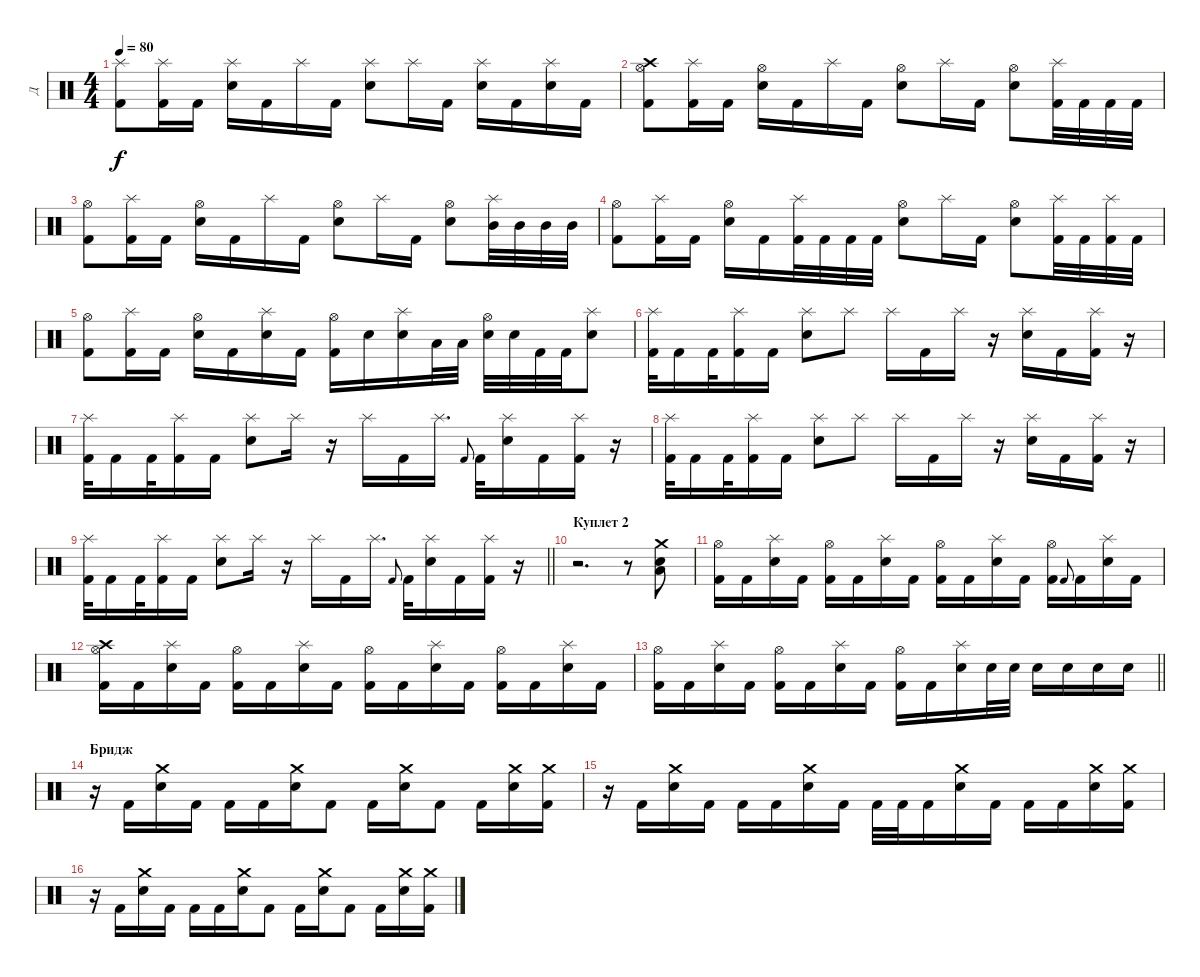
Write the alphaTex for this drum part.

\track ("Д" "Д") {instrument percussion}
\staff {score}
\articulation defaults
\ts (4 4)
\tempo 80
\clef neutral
\ks c
("Kick (hit) 2" "Splash (hit)").8{dy f} ("Kick (hit) 2" "Splash (hit)").16 "Kick (hit) 2".16 ("Electric Snare (hit)" "Splash (hit)").16 "Kick (hit) 2".16 "Splash (hit)".16 "Kick (hit) 2".16 ("Electric Snare (hit)" "Splash (hit)").8 "Splash (hit)".16 "Kick (hit) 2".16 ("Electric Snare (hit)" "Splash (hit)").16 "Kick (hit) 2".16 ("Electric Snare (hit)" "Splash (hit)").16 "Kick (hit) 2".16 |
("Crash high (hit)" "Kick (hit) 2" "Hi-Hat (open)").8 ("Kick (hit) 2" "Splash (hit)").16 "Kick (hit) 2".16 ("Electric Snare (hit)" "Hi-Hat (open)").16 "Kick (hit) 2".16 "Splash (hit)".16 "Kick (hit) 2".16 ("Electric Snare (hit)" "Hi-Hat (open)").8 "Splash (hit)".16 "Kick (hit) 2".16 ("Electric Snare (hit)" "Hi-Hat (open)").8 ("Kick (hit) 2" "Splash (hit)").32 "Kick (hit) 2".32 "Kick (hit) 2".32 "Kick (hit) 2".32 |
("Kick (hit) 2" "Hi-Hat (open)").8 ("Kick (hit) 2" "Splash (hit)").16 "Kick (hit) 2".16 ("Electric Snare (hit)" "Hi-Hat (open)").16 "Kick (hit) 2".16 "Splash (hit)".16 "Kick (hit) 2".16 ("Electric Snare (hit)" "Hi-Hat (open)").8 "Splash (hit)".16 "Kick (hit) 2".16 ("Electric Snare (hit)" "Hi-Hat (open)").8 ("Mid Tom (hit)" "Splash (hit)").32 "Mid Tom (hit)".32 "Mid Tom (hit)".32 "Mid Tom (hit)".32 |
("Kick (hit) 2" "Hi-Hat (open)").8 ("Kick (hit) 2" "Splash (hit)").16 "Kick (hit) 2".16 ("Electric Snare (hit)" "Hi-Hat (open)").16 "Kick (hit) 2".16 ("Kick (hit) 2" "Splash (hit)").32 "Kick (hit) 2".32 "Kick (hit) 2".32 "Kick (hit) 2".32 ("Electric Snare (hit)" "Hi-Hat (open)").8 "Splash (hit)".16 "Kick (hit) 2".16 ("Electric Snare (hit)" "Hi-Hat (open)").8 ("Kick (hit) 2" "Splash (hit)").32 "Kick (hit) 2".32 ("Kick (hit) 2" "Splash (hit)").32 "Kick (hit) 2".32 |
("Kick (hit) 2" "Hi-Hat (open)").8 ("Kick (hit) 2" "Splash (hit)").16 "Kick (hit) 2".16 ("Electric Snare (hit)" "Hi-Hat (open)").16 "Kick (hit) 2".16 ("Electric Snare (hit)" "Splash (hit)").16 "Kick (hit) 2".16 ("Kick (hit) 2" "Hi-Hat (open)").16 "Electric Snare (hit)".16 ("Electric Snare (hit)" "Splash (hit)").16 "Low Tom (hit)".32 "Low Tom (hit)".32 ("Electric Snare (hit)" "Hi-Hat (open)").32 "Electric Snare (hit)".32 "Kick (hit) 2".32 "Kick (hit) 2".32 ("Electric Snare (hit)" "Splash (hit)").8 |
("Kick (hit) 2" "Splash (hit)").32 "Kick (hit) 2".16 "Kick (hit) 2".32 ("Kick (hit) 2" "Splash (hit)").16 "Kick (hit) 2".16 ("Electric Snare (hit)" "Splash (hit)").8 "Splash (hit)".8 "Splash (hit)".16 "Kick (hit) 2".16 "Splash (hit)".16 r.16 ("Electric Snare (hit)" "Splash (hit)").16 "Kick (hit) 2".16 ("Kick (hit) 2" "Splash (hit)").16 r.16 |
("Kick (hit) 2" "Splash (hit)").32 "Kick (hit) 2".16 "Kick (hit) 2".32 ("Kick (hit) 2" "Splash (hit)").16 "Kick (hit) 2".16 ("Electric Snare (hit)" "Splash (hit)").8 "Splash (hit)".16 r.16 "Splash (hit)".16 "Kick (hit) 2".16 "Splash (hit)".16{d} "Kick (hit) 2".8{gr onbeat} "Kick (hit) 2".32 ("Electric Snare (hit)" "Splash (hit)").16 "Kick (hit) 2".16 ("Kick (hit) 2" "Splash (hit)").16 r.16 |
("Kick (hit) 2" "Splash (hit)").32 "Kick (hit) 2".16 "Kick (hit) 2".32 ("Kick (hit) 2" "Splash (hit)").16 "Kick (hit) 2".16 ("Electric Snare (hit)" "Splash (hit)").8 "Splash (hit)".8 "Splash (hit)".16 "Kick (hit) 2".16 "Splash (hit)".16 r.16 ("Electric Snare (hit)" "Splash (hit)").16 "Kick (hit) 2".16 ("Kick (hit) 2" "Splash (hit)").16 r.16 |
\barLineRight lightlight
("Kick (hit) 2" "Splash (hit)").32 "Kick (hit) 2".16 "Kick (hit) 2".32 ("Kick (hit) 2" "Splash (hit)").16 "Kick (hit) 2".16 ("Electric Snare (hit)" "Splash (hit)").8 "Splash (hit)".16 r.16 "Splash (hit)".16 "Kick (hit) 2".16 "Splash (hit)".16{d} "Kick (hit) 2".8{gr onbeat} "Kick (hit) 2".32 ("Electric Snare (hit)" "Splash (hit)").16 "Kick (hit) 2".16 ("Kick (hit) 2" "Splash (hit)").16 r.16 |
\section ("" "Куплет 2")
r.2{d} r.8 ("Low Tom (hit)" "Electric Snare (hit)" "Crash medium (hit)").8 |
("Kick (hit) 2" "Hi-Hat (open)").16 "Kick (hit) 2".16 ("Electric Snare (hit)" "Splash (hit)").16 "Kick (hit) 2".16 ("Kick (hit) 2" "Hi-Hat (open)").16 "Kick (hit) 2".16 ("Electric Snare (hit)" "Splash (hit)").16 "Kick (hit) 2".16 ("Kick (hit) 2" "Hi-Hat (open)").16 "Kick (hit) 2".16 ("Electric Snare (hit)" "Splash (hit)").16 "Kick (hit) 2".16 ("Kick (hit) 2" "Hi-Hat (open)").16 "Kick (hit) 2".8{gr onbeat} "Kick (hit) 2".16 ("Electric Snare (hit)" "Splash (hit)").16 "Kick (hit) 2".16 |
("Crash high (hit)" "Kick (hit) 2" "Hi-Hat (open)").16 "Kick (hit) 2".16 ("Electric Snare (hit)" "Splash (hit)").16 "Kick (hit) 2".16 ("Kick (hit) 2" "Hi-Hat (open)").16 "Kick (hit) 2".16 ("Electric Snare (hit)" "Splash (hit)").16 "Kick (hit) 2".16 ("Kick (hit) 2" "Hi-Hat (open)").16 "Kick (hit) 2".16 ("Electric Snare (hit)" "Splash (hit)").16 "Kick (hit) 2".16 ("Kick (hit) 2" "Hi-Hat (open)").16 "Kick (hit) 2".16 ("Electric Snare (hit)" "Splash (hit)").16 "Kick (hit) 2".16 |
\barLineRight lightlight
("Kick (hit) 2" "Hi-Hat (open)").16 "Kick (hit) 2".16 ("Electric Snare (hit)" "Splash (hit)").16 "Kick (hit) 2".16 ("Kick (hit) 2" "Hi-Hat (open)").16 "Kick (hit) 2".16 ("Electric Snare (hit)" "Splash (hit)").16 "Kick (hit) 2".16 ("Kick (hit) 2" "Hi-Hat (open)").16 "Kick (hit) 2".16 ("Electric Snare (hit)" "Splash (hit)").16 "Electric Snare (hit)".32 "Electric Snare (hit)".32 "Electric Snare (hit)".16 "Electric Snare (hit)".16 "Electric Snare (hit)".16 "Electric Snare (hit)".16 |
\section ("" "Бридж")
r.16 "Kick (hit) 2".16 ("Crash medium (hit)" "Electric Snare (hit)").16 "Kick (hit) 2".16 "Kick (hit) 2".16 "Kick (hit) 2".16 ("Crash medium (hit)" "Electric Snare (hit)").16 "Kick (hit) 2".8 "Kick (hit) 2".16 ("Crash medium (hit)" "Electric Snare (hit)").16 "Kick (hit) 2".8 "Kick (hit) 2".16 ("Crash medium (hit)" "Electric Snare (hit)").16 ("Crash medium (hit)" "Kick (hit) 2").16 |
r.16 "Kick (hit) 2".16 ("Crash medium (hit)" "Electric Snare (hit)").16 "Kick (hit) 2".16 "Kick (hit) 2".16 "Kick (hit) 2".16 ("Crash medium (hit)" "Electric Snare (hit)").16 "Kick (hit) 2".16 "Kick (hit) 2".32 "Kick (hit) 2".32 "Kick (hit) 2".16 ("Crash medium (hit)" "Electric Snare (hit)").16 "Kick (hit) 2".16 "Kick (hit) 2".16 "Kick (hit) 2".16 ("Crash medium (hit)" "Electric Snare (hit)").16 ("Crash medium (hit)" "Kick (hit) 2").16 |
r.16 "Kick (hit) 2".16 ("Crash medium (hit)" "Electric Snare (hit)").16 "Kick (hit) 2".16 "Kick (hit) 2".16 "Kick (hit) 2".16 ("Crash medium (hit)" "Electric Snare (hit)").16 "Kick (hit) 2".8 "Kick (hit) 2".16 ("Crash medium (hit)" "Electric Snare (hit)").16 "Kick (hit) 2".8 "Kick (hit) 2".16 ("Crash medium (hit)" "Electric Snare (hit)").16 ("Crash medium (hit)" "Kick (hit) 2").16
